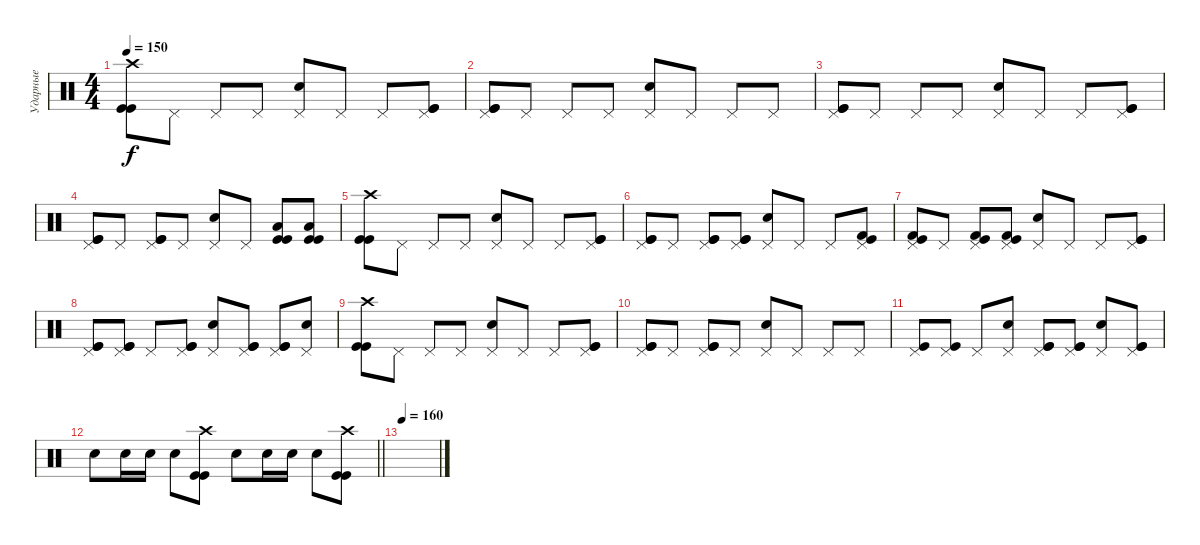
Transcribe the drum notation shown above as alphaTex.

\track ("Ударные" "Ударные") {instrument percussion}
\staff {score}
\articulation defaults
\ts (4 4)
\tempo 150
\clef neutral
\ks c
("Crash high (hit)" "Kick (hit)" "Kick (hit)").8{dy f} "Pedal Hi-Hat (hit)".8 "Pedal Hi-Hat (hit)".8 "Pedal Hi-Hat (hit)".8 ("Pedal Hi-Hat (hit)" "Electric Snare (hit)").8 "Pedal Hi-Hat (hit)".8 "Pedal Hi-Hat (hit)".8 ("Pedal Hi-Hat (hit)" "Kick (hit)" "Kick (hit)").8 |
("Pedal Hi-Hat (hit)" "Kick (hit)" "Kick (hit)").8 "Pedal Hi-Hat (hit)".8 "Pedal Hi-Hat (hit)".8 "Pedal Hi-Hat (hit)".8 ("Pedal Hi-Hat (hit)" "Electric Snare (hit)").8 "Pedal Hi-Hat (hit)".8 "Pedal Hi-Hat (hit)".8 "Pedal Hi-Hat (hit)".8 |
("Pedal Hi-Hat (hit)" "Kick (hit)" "Kick (hit)").8 "Pedal Hi-Hat (hit)".8 "Pedal Hi-Hat (hit)".8 "Pedal Hi-Hat (hit)".8 ("Pedal Hi-Hat (hit)" "Electric Snare (hit)").8 "Pedal Hi-Hat (hit)".8 "Pedal Hi-Hat (hit)".8 ("Pedal Hi-Hat (hit)" "Kick (hit)" "Kick (hit)").8 |
("Pedal Hi-Hat (hit)" "Kick (hit)" "Kick (hit)").8 "Pedal Hi-Hat (hit)".8 ("Pedal Hi-Hat (hit)" "Kick (hit)" "Kick (hit)").8 "Pedal Hi-Hat (hit)".8 ("Pedal Hi-Hat (hit)" "Electric Snare (hit)").8 "Pedal Hi-Hat (hit)".8 ("Low Tom (hit)" "Kick (hit)" "Kick (hit)").8 ("Low Tom (hit)" "Kick (hit)" "Kick (hit)").8 |
("Crash high (hit)" "Kick (hit)" "Kick (hit)").8 "Pedal Hi-Hat (hit)".8 "Pedal Hi-Hat (hit)".8 "Pedal Hi-Hat (hit)".8 ("Pedal Hi-Hat (hit)" "Electric Snare (hit)").8 "Pedal Hi-Hat (hit)".8 "Pedal Hi-Hat (hit)".8 ("Pedal Hi-Hat (hit)" "Kick (hit)" "Kick (hit)").8 |
("Pedal Hi-Hat (hit)" "Kick (hit)" "Kick (hit)").8 "Pedal Hi-Hat (hit)".8 ("Pedal Hi-Hat (hit)" "Kick (hit)" "Kick (hit)").8 ("Pedal Hi-Hat (hit)" "Kick (hit)" "Kick (hit)").8 ("Pedal Hi-Hat (hit)" "Electric Snare (hit)").8 "Pedal Hi-Hat (hit)".8 "Pedal Hi-Hat (hit)".8 ("Pedal Hi-Hat (hit)" "Kick (hit)" "Kick (hit) 2").8 |
("Pedal Hi-Hat (hit)" "Kick (hit)" "Kick (hit) 2").8 "Pedal Hi-Hat (hit)".8 ("Pedal Hi-Hat (hit)" "Kick (hit)" "Kick (hit) 2").8 ("Pedal Hi-Hat (hit)" "Kick (hit)" "Kick (hit) 2").8 ("Pedal Hi-Hat (hit)" "Electric Snare (hit)").8 "Pedal Hi-Hat (hit)".8 "Pedal Hi-Hat (hit)".8 ("Pedal Hi-Hat (hit)" "Kick (hit)" "Kick (hit)").8 |
("Pedal Hi-Hat (hit)" "Kick (hit)" "Kick (hit)").8 ("Pedal Hi-Hat (hit)" "Kick (hit)" "Kick (hit)").8 "Pedal Hi-Hat (hit)".8 ("Pedal Hi-Hat (hit)" "Kick (hit)" "Kick (hit)").8 ("Pedal Hi-Hat (hit)" "Electric Snare (hit)").8 ("Pedal Hi-Hat (hit)" "Kick (hit)" "Kick (hit)").8 ("Pedal Hi-Hat (hit)" "Kick (hit)" "Kick (hit)").8 ("Pedal Hi-Hat (hit)" "Electric Snare (hit)").8 |
("Crash high (hit)" "Kick (hit)" "Kick (hit)").8 "Pedal Hi-Hat (hit)".8 "Pedal Hi-Hat (hit)".8 "Pedal Hi-Hat (hit)".8 ("Pedal Hi-Hat (hit)" "Electric Snare (hit)").8 "Pedal Hi-Hat (hit)".8 "Pedal Hi-Hat (hit)".8 ("Pedal Hi-Hat (hit)" "Kick (hit)" "Kick (hit)").8 |
("Pedal Hi-Hat (hit)" "Kick (hit)" "Kick (hit)").8 "Pedal Hi-Hat (hit)".8 ("Pedal Hi-Hat (hit)" "Kick (hit)" "Kick (hit)").8 "Pedal Hi-Hat (hit)".8 ("Pedal Hi-Hat (hit)" "Electric Snare (hit)").8 "Pedal Hi-Hat (hit)".8 "Pedal Hi-Hat (hit)".8 "Pedal Hi-Hat (hit)".8 |
("Pedal Hi-Hat (hit)" "Kick (hit)").8 ("Pedal Hi-Hat (hit)" "Kick (hit)").8 "Pedal Hi-Hat (hit)".8 ("Pedal Hi-Hat (hit)" "Electric Snare (hit)").8 ("Pedal Hi-Hat (hit)" "Kick (hit)" "Kick (hit)").8 ("Pedal Hi-Hat (hit)" "Kick (hit)" "Kick (hit)").8 ("Pedal Hi-Hat (hit)" "Electric Snare (hit)").8 ("Pedal Hi-Hat (hit)" "Kick (hit)" "Kick (hit)").8 |
\barLineRight lightlight "Electric Snare (hit)".8 "Electric Snare (hit)".16 "Electric Snare (hit)".16 "Electric Snare (hit)".8
("Crash high (hit)" "Kick (hit)" "Kick (hit)").8 "Electric Snare (hit)".8 "Electric Snare (hit)".16 "Electric Snare (hit)".16 "Electric Snare (hit)".8 ("Crash high (hit)" "Kick (hit)" "Kick (hit)").8 |
\tempo 160
